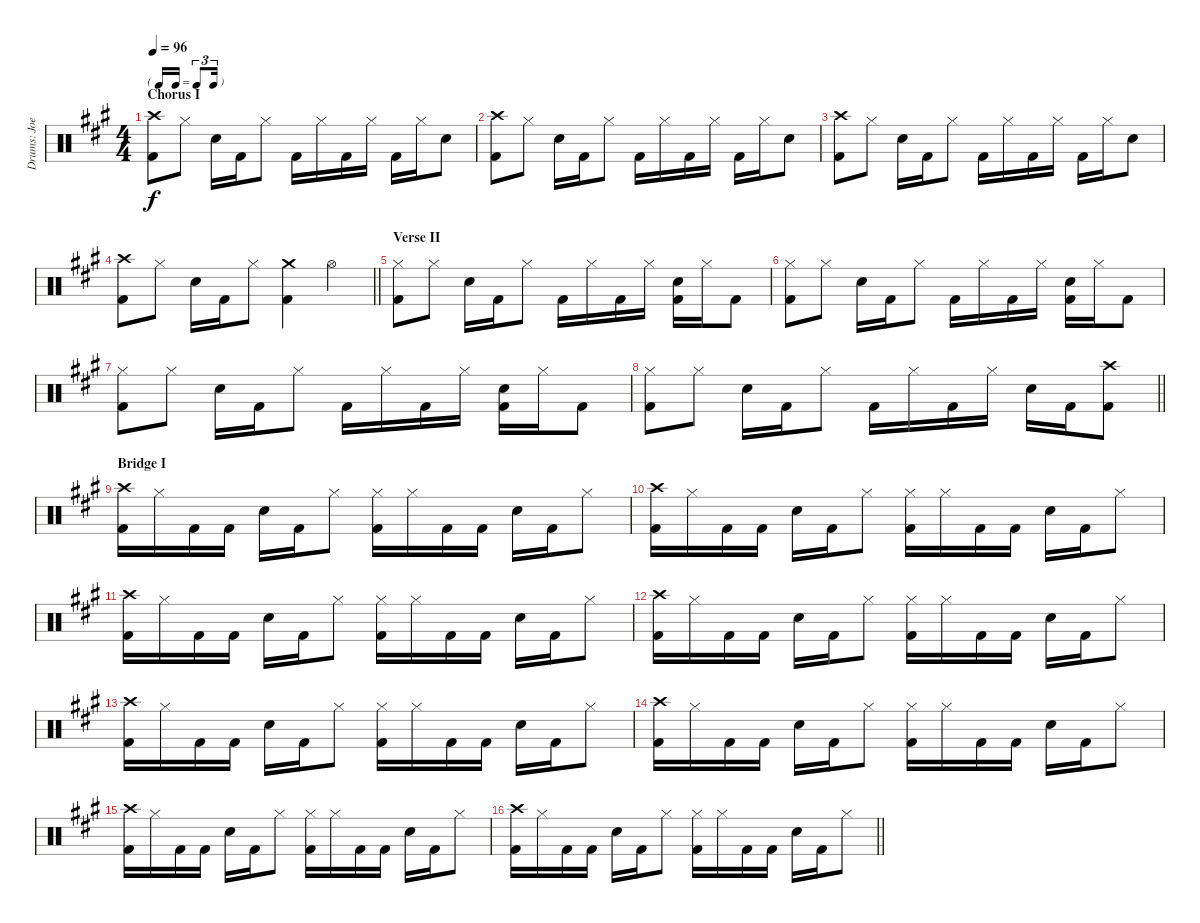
\track ("Drums: Joey" "Drums: Joe") {instrument percussion}
\staff {score}
\articulation defaults
\ts (4 4)
\tf triplet16th
\section ("" "Chorus I")
\tempo 96
\clef neutral
\ks a
("Crash high (hit)" "Kick (hit) 2").8{dy f} "Hi-Hat (closed)".8 "Electric Snare (hit)".16 "Kick (hit) 2".16 "Hi-Hat (closed)".8 "Kick (hit) 2".16 "Hi-Hat (closed)".16 "Kick (hit) 2".16 "Hi-Hat (closed)".16 "Kick (hit) 2".16 "Hi-Hat (closed)".16 "Electric Snare (hit)".8 |
("Crash high (hit)" "Kick (hit) 2").8 "Hi-Hat (closed)".8 "Electric Snare (hit)".16 "Kick (hit) 2".16 "Hi-Hat (closed)".8 "Kick (hit) 2".16 "Hi-Hat (closed)".16 "Kick (hit) 2".16 "Hi-Hat (closed)".16 "Kick (hit) 2".16 "Hi-Hat (closed)".16 "Electric Snare (hit)".8 |
("Crash high (hit)" "Kick (hit) 2").8 "Hi-Hat (closed)".8 "Electric Snare (hit)".16 "Kick (hit) 2".16 "Hi-Hat (closed)".8 "Kick (hit) 2".16 "Hi-Hat (closed)".16 "Kick (hit) 2".16 "Hi-Hat (closed)".16 "Kick (hit) 2".16 "Hi-Hat (closed)".16 "Electric Snare (hit)".8 |
\barLineRight lightlight
("Crash high (hit)" "Kick (hit) 2").8 "Hi-Hat (closed)".8 "Electric Snare (hit)".16 "Kick (hit) 2".16 "Hi-Hat (closed)".8 ("Crash medium (hit)" "Kick (hit) 2").4 "Hi-Hat (open)".4 |
\section ("" "Verse II")
("Hi-Hat (closed)" "Kick (hit) 2").8 "Hi-Hat (closed)".8 "Electric Snare (hit)".16 "Kick (hit) 2".16 "Hi-Hat (closed)".8 "Kick (hit) 2".16 "Hi-Hat (closed)".16 "Kick (hit) 2".16 "Hi-Hat (closed)".16 ("Electric Snare (hit)" "Kick (hit) 2").16 "Hi-Hat (closed)".16 "Kick (hit) 2".8 |
("Hi-Hat (closed)" "Kick (hit) 2").8 "Hi-Hat (closed)".8 "Electric Snare (hit)".16 "Kick (hit) 2".16 "Hi-Hat (closed)".8 "Kick (hit) 2".16 "Hi-Hat (closed)".16 "Kick (hit) 2".16 "Hi-Hat (closed)".16 ("Electric Snare (hit)" "Kick (hit) 2").16 "Hi-Hat (closed)".16 "Kick (hit) 2".8 |
("Hi-Hat (closed)" "Kick (hit) 2").8 "Hi-Hat (closed)".8 "Electric Snare (hit)".16 "Kick (hit) 2".16 "Hi-Hat (closed)".8 "Kick (hit) 2".16 "Hi-Hat (closed)".16 "Kick (hit) 2".16 "Hi-Hat (closed)".16 ("Electric Snare (hit)" "Kick (hit) 2").16 "Hi-Hat (closed)".16 "Kick (hit) 2".8 |
\barLineRight lightlight
("Hi-Hat (closed)" "Kick (hit) 2").8 "Hi-Hat (closed)".8 "Electric Snare (hit)".16 "Kick (hit) 2".16 "Hi-Hat (closed)".8 "Kick (hit) 2".16 "Hi-Hat (closed)".16 "Kick (hit) 2".16 "Hi-Hat (closed)".16 "Electric Snare (hit)".16 "Kick (hit) 2".16 ("Crash high (hit)" "Kick (hit) 2").8 |
\section ("" "Bridge I")
("Crash high (hit)" "Kick (hit) 2").16 "Hi-Hat (closed)".16 "Kick (hit) 2".16 "Kick (hit) 2".16 "Electric Snare (hit)".16 "Kick (hit) 2".16 "Hi-Hat (closed)".8 ("Hi-Hat (closed)" "Kick (hit) 2").16 "Hi-Hat (closed)".16 "Kick (hit) 2".16 "Kick (hit) 2".16 "Electric Snare (hit)".16 "Kick (hit) 2".16 "Hi-Hat (closed)".8 |
("Crash high (hit)" "Kick (hit) 2").16 "Hi-Hat (closed)".16 "Kick (hit) 2".16 "Kick (hit) 2".16 "Electric Snare (hit)".16 "Kick (hit) 2".16 "Hi-Hat (closed)".8 ("Hi-Hat (closed)" "Kick (hit) 2").16 "Hi-Hat (closed)".16 "Kick (hit) 2".16 "Kick (hit) 2".16 "Electric Snare (hit)".16 "Kick (hit) 2".16 "Hi-Hat (closed)".8 |
("Crash high (hit)" "Kick (hit) 2").16 "Hi-Hat (closed)".16 "Kick (hit) 2".16 "Kick (hit) 2".16 "Electric Snare (hit)".16 "Kick (hit) 2".16 "Hi-Hat (closed)".8 ("Hi-Hat (closed)" "Kick (hit) 2").16 "Hi-Hat (closed)".16 "Kick (hit) 2".16 "Kick (hit) 2".16 "Electric Snare (hit)".16 "Kick (hit) 2".16 "Hi-Hat (closed)".8 |
("Crash high (hit)" "Kick (hit) 2").16 "Hi-Hat (closed)".16 "Kick (hit) 2".16 "Kick (hit) 2".16 "Electric Snare (hit)".16 "Kick (hit) 2".16 "Hi-Hat (closed)".8 ("Hi-Hat (closed)" "Kick (hit) 2").16 "Hi-Hat (closed)".16 "Kick (hit) 2".16 "Kick (hit) 2".16 "Electric Snare (hit)".16 "Kick (hit) 2".16 "Hi-Hat (closed)".8 |
("Crash high (hit)" "Kick (hit) 2").16 "Hi-Hat (closed)".16 "Kick (hit) 2".16 "Kick (hit) 2".16 "Electric Snare (hit)".16 "Kick (hit) 2".16 "Hi-Hat (closed)".8 ("Hi-Hat (closed)" "Kick (hit) 2").16 "Hi-Hat (closed)".16 "Kick (hit) 2".16 "Kick (hit) 2".16 "Electric Snare (hit)".16 "Kick (hit) 2".16 "Hi-Hat (closed)".8 |
("Crash high (hit)" "Kick (hit) 2").16 "Hi-Hat (closed)".16 "Kick (hit) 2".16 "Kick (hit) 2".16 "Electric Snare (hit)".16 "Kick (hit) 2".16 "Hi-Hat (closed)".8 ("Hi-Hat (closed)" "Kick (hit) 2").16 "Hi-Hat (closed)".16 "Kick (hit) 2".16 "Kick (hit) 2".16 "Electric Snare (hit)".16 "Kick (hit) 2".16 "Hi-Hat (closed)".8 |
("Crash high (hit)" "Kick (hit) 2").16 "Hi-Hat (closed)".16 "Kick (hit) 2".16 "Kick (hit) 2".16 "Electric Snare (hit)".16 "Kick (hit) 2".16 "Hi-Hat (closed)".8 ("Hi-Hat (closed)" "Kick (hit) 2").16 "Hi-Hat (closed)".16 "Kick (hit) 2".16 "Kick (hit) 2".16 "Electric Snare (hit)".16 "Kick (hit) 2".16 "Hi-Hat (closed)".8 |
\barLineRight lightlight
("Crash high (hit)" "Kick (hit) 2").16 "Hi-Hat (closed)".16 "Kick (hit) 2".16 "Kick (hit) 2".16 "Electric Snare (hit)".16 "Kick (hit) 2".16 "Hi-Hat (closed)".8 ("Hi-Hat (closed)" "Kick (hit) 2").16 "Hi-Hat (closed)".16 "Kick (hit) 2".16 "Kick (hit) 2".16 "Electric Snare (hit)".16 "Kick (hit) 2".16 "Hi-Hat (closed)".8
